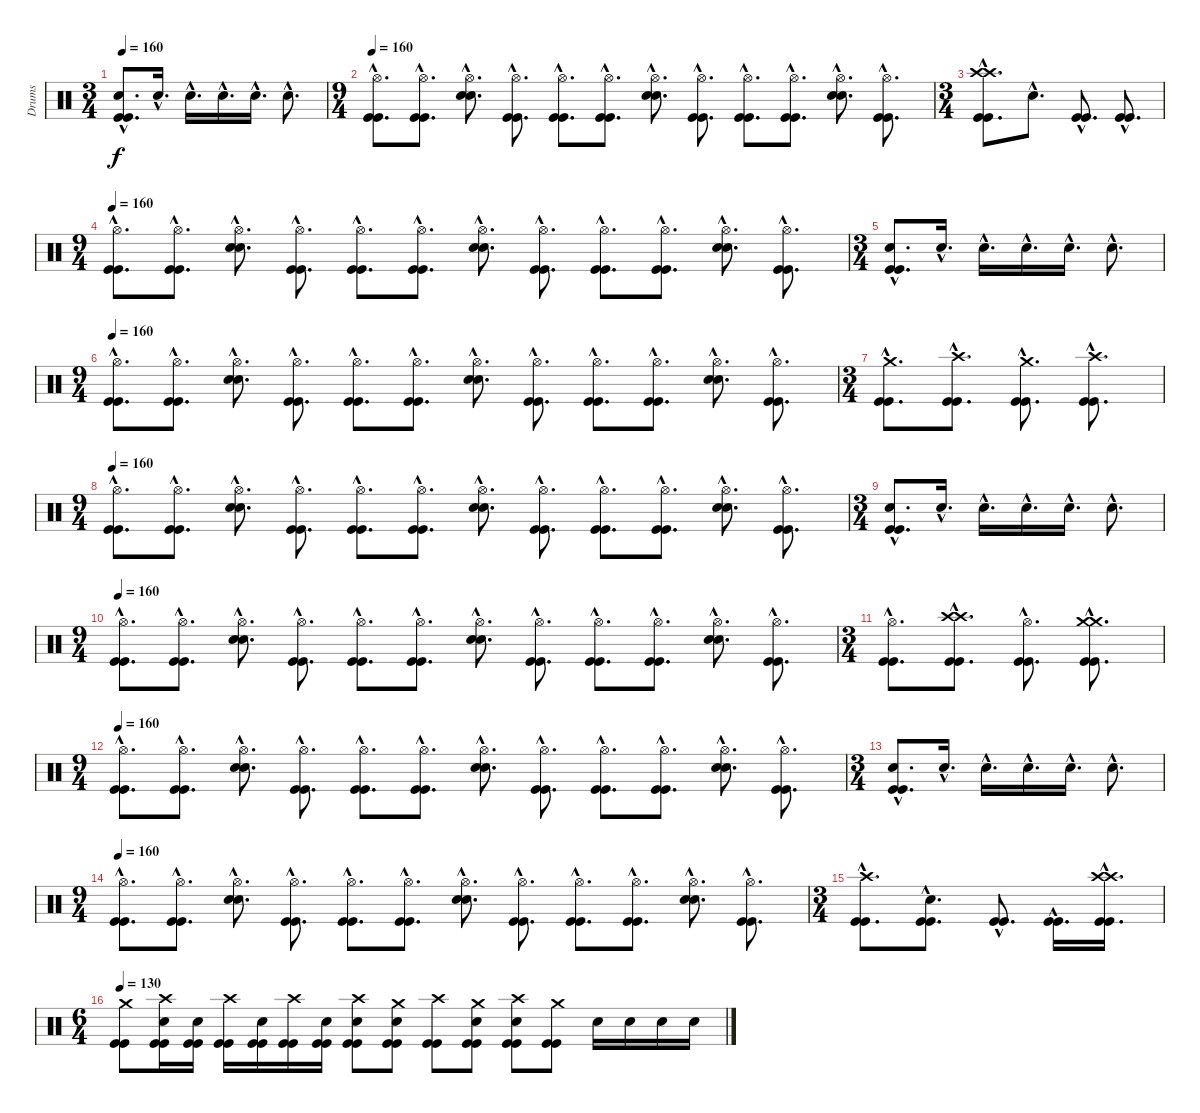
\track ("Drums" "Drums") {instrument percussion}
\staff {score}
\articulation defaults
\ts (3 4)
\tempo 160
\clef neutral
\ks c
("Electric Snare (hit)"{hac} "Kick (hit)"{hac} "Kick (hit)"{hac}).8{d dy f} "Electric Snare (hit)"{hac}.16{d} "Electric Snare (hit)"{hac}.16{d} "Electric Snare (hit)"{hac}.16{d} "Electric Snare (hit)"{hac}.16{d} "Electric Snare (hit)"{hac}.8{d} |
\ts (9 4)
\tempo 160
("Hi-Hat (open)"{hac} "Kick (hit)"{hac} "Kick (hit)"{hac}).8{d} ("Hi-Hat (open)"{hac} "Kick (hit)"{hac} "Kick (hit)"{hac}).8{d} ("Hi-Hat (open)"{hac} "Electric Snare (hit)"{hac} "Electric Snare (hit)"{hac}).8{d} ("Hi-Hat (open)"{hac} "Kick (hit)"{hac} "Kick (hit)"{hac}).8{d} ("Hi-Hat (open)"{hac} "Kick (hit)"{hac} "Kick (hit)"{hac}).8{d} ("Hi-Hat (open)"{hac} "Kick (hit)"{hac} "Kick (hit)"{hac}).8{d} ("Hi-Hat (open)"{hac} "Electric Snare (hit)"{hac} "Electric Snare (hit)"{hac}).8{d} ("Hi-Hat (open)"{hac} "Kick (hit)"{hac} "Kick (hit)"{hac}).8{d} ("Hi-Hat (open)"{hac} "Kick (hit)"{hac} "Kick (hit)"{hac}).8{d} ("Hi-Hat (open)"{hac} "Kick (hit)"{hac} "Kick (hit)"{hac}).8{d} ("Hi-Hat (open)"{hac} "Electric Snare (hit)"{hac} "Electric Snare (hit)"{hac}).8{d} ("Hi-Hat (open)"{hac} "Kick (hit)"{hac} "Kick (hit)"{hac}).8{d} |
\ts (3 4)
("Crash high (hit)"{hac} "Crash high (hit)"{hac} "Kick (hit)"{hac} "Kick (hit)"{hac}).8{d} "Electric Snare (hit)"{hac}.8{d} ("Kick (hit)"{hac} "Kick (hit)"{hac}).8{d} ("Kick (hit)"{hac} "Kick (hit)"{hac}).8{d} |
\ts (9 4)
\tempo 160
("Hi-Hat (open)"{hac} "Kick (hit)"{hac} "Kick (hit)"{hac}).8{d} ("Hi-Hat (open)"{hac} "Kick (hit)"{hac} "Kick (hit)"{hac}).8{d} ("Hi-Hat (open)"{hac} "Electric Snare (hit)"{hac} "Electric Snare (hit)"{hac}).8{d} ("Hi-Hat (open)"{hac} "Kick (hit)"{hac} "Kick (hit)"{hac}).8{d} ("Hi-Hat (open)"{hac} "Kick (hit)"{hac} "Kick (hit)"{hac}).8{d} ("Hi-Hat (open)"{hac} "Kick (hit)"{hac} "Kick (hit)"{hac}).8{d} ("Hi-Hat (open)"{hac} "Electric Snare (hit)"{hac} "Electric Snare (hit)"{hac}).8{d} ("Hi-Hat (open)"{hac} "Kick (hit)"{hac} "Kick (hit)"{hac}).8{d} ("Hi-Hat (open)"{hac} "Kick (hit)"{hac} "Kick (hit)"{hac}).8{d} ("Hi-Hat (open)"{hac} "Kick (hit)"{hac} "Kick (hit)"{hac}).8{d} ("Hi-Hat (open)"{hac} "Electric Snare (hit)"{hac} "Electric Snare (hit)"{hac}).8{d} ("Hi-Hat (open)"{hac} "Kick (hit)"{hac} "Kick (hit)"{hac}).8{d} |
\ts (3 4)
("Electric Snare (hit)"{hac} "Kick (hit)"{hac} "Kick (hit)"{hac}).8{d} "Electric Snare (hit)"{hac}.16{d} "Electric Snare (hit)"{hac}.16{d} "Electric Snare (hit)"{hac}.16{d} "Electric Snare (hit)"{hac}.16{d} "Electric Snare (hit)"{hac}.8{d} |
\ts (9 4)
\tempo 160
("Hi-Hat (open)"{hac} "Kick (hit)"{hac} "Kick (hit)"{hac}).8{d} ("Hi-Hat (open)"{hac} "Kick (hit)"{hac} "Kick (hit)"{hac}).8{d} ("Hi-Hat (open)"{hac} "Electric Snare (hit)"{hac} "Electric Snare (hit)"{hac}).8{d} ("Hi-Hat (open)"{hac} "Kick (hit)"{hac} "Kick (hit)"{hac}).8{d} ("Hi-Hat (open)"{hac} "Kick (hit)"{hac} "Kick (hit)"{hac}).8{d} ("Hi-Hat (open)"{hac} "Kick (hit)"{hac} "Kick (hit)"{hac}).8{d} ("Hi-Hat (open)"{hac} "Electric Snare (hit)"{hac} "Electric Snare (hit)"{hac}).8{d} ("Hi-Hat (open)"{hac} "Kick (hit)"{hac} "Kick (hit)"{hac}).8{d} ("Hi-Hat (open)"{hac} "Kick (hit)"{hac} "Kick (hit)"{hac}).8{d} ("Hi-Hat (open)"{hac} "Kick (hit)"{hac} "Kick (hit)"{hac}).8{d} ("Hi-Hat (open)"{hac} "Electric Snare (hit)"{hac} "Electric Snare (hit)"{hac}).8{d} ("Hi-Hat (open)"{hac} "Kick (hit)"{hac} "Kick (hit)"{hac}).8{d} |
\ts (3 4)
("Crash medium (hit)"{hac} "Kick (hit)"{hac} "Kick (hit)"{hac}).8{d} ("Crash high (hit)"{hac} "Kick (hit)"{hac} "Kick (hit)"{hac}).8{d} ("Crash medium (hit)"{hac} "Kick (hit)"{hac} "Kick (hit)"{hac}).8{d} ("Crash high (hit)"{hac} "Kick (hit)"{hac} "Kick (hit)"{hac}).8{d} |
\ts (9 4)
\tempo 160
("Hi-Hat (open)"{hac} "Kick (hit)"{hac} "Kick (hit)"{hac}).8{d} ("Hi-Hat (open)"{hac} "Kick (hit)"{hac} "Kick (hit)"{hac}).8{d} ("Hi-Hat (open)"{hac} "Electric Snare (hit)"{hac} "Electric Snare (hit)"{hac}).8{d} ("Hi-Hat (open)"{hac} "Kick (hit)"{hac} "Kick (hit)"{hac}).8{d} ("Hi-Hat (open)"{hac} "Kick (hit)"{hac} "Kick (hit)"{hac}).8{d} ("Hi-Hat (open)"{hac} "Kick (hit)"{hac} "Kick (hit)"{hac}).8{d} ("Hi-Hat (open)"{hac} "Electric Snare (hit)"{hac} "Electric Snare (hit)"{hac}).8{d} ("Hi-Hat (open)"{hac} "Kick (hit)"{hac} "Kick (hit)"{hac}).8{d} ("Hi-Hat (open)"{hac} "Kick (hit)"{hac} "Kick (hit)"{hac}).8{d} ("Hi-Hat (open)"{hac} "Kick (hit)"{hac} "Kick (hit)"{hac}).8{d} ("Hi-Hat (open)"{hac} "Electric Snare (hit)"{hac} "Electric Snare (hit)"{hac}).8{d} ("Hi-Hat (open)"{hac} "Kick (hit)"{hac} "Kick (hit)"{hac}).8{d} |
\ts (3 4)
("Electric Snare (hit)"{hac} "Kick (hit)"{hac} "Kick (hit)"{hac}).8{d} "Electric Snare (hit)"{hac}.16{d} "Electric Snare (hit)"{hac}.16{d} "Electric Snare (hit)"{hac}.16{d} "Electric Snare (hit)"{hac}.16{d} "Electric Snare (hit)"{hac}.8{d} |
\ts (9 4)
\tempo 160
("Hi-Hat (open)"{hac} "Kick (hit)"{hac} "Kick (hit)"{hac}).8{d} ("Hi-Hat (open)"{hac} "Kick (hit)"{hac} "Kick (hit)"{hac}).8{d} ("Hi-Hat (open)"{hac} "Electric Snare (hit)"{hac} "Electric Snare (hit)"{hac}).8{d} ("Hi-Hat (open)"{hac} "Kick (hit)"{hac} "Kick (hit)"{hac}).8{d} ("Hi-Hat (open)"{hac} "Kick (hit)"{hac} "Kick (hit)"{hac}).8{d} ("Hi-Hat (open)"{hac} "Kick (hit)"{hac} "Kick (hit)"{hac}).8{d} ("Hi-Hat (open)"{hac} "Electric Snare (hit)"{hac} "Electric Snare (hit)"{hac}).8{d} ("Hi-Hat (open)"{hac} "Kick (hit)"{hac} "Kick (hit)"{hac}).8{d} ("Hi-Hat (open)"{hac} "Kick (hit)"{hac} "Kick (hit)"{hac}).8{d} ("Hi-Hat (open)"{hac} "Kick (hit)"{hac} "Kick (hit)"{hac}).8{d} ("Hi-Hat (open)"{hac} "Electric Snare (hit)"{hac} "Electric Snare (hit)"{hac}).8{d} ("Hi-Hat (open)"{hac} "Kick (hit)"{hac} "Kick (hit)"{hac}).8{d} |
\ts (3 4)
("Hi-Hat (open)"{hac} "Kick (hit)"{hac} "Kick (hit)"{hac}).8{d} ("Crash high (hit)"{hac} "Crash high (hit)"{hac} "Kick (hit)"{hac} "Kick (hit)"{hac}).8{d} ("Hi-Hat (open)"{hac} "Kick (hit)"{hac} "Kick (hit)"{hac}).8{d} ("Crash medium (hit)"{hac} "Crash medium (hit)"{hac} "Kick (hit)"{hac} "Kick (hit)"{hac}).8{d} |
\ts (9 4)
\tempo 160
("Hi-Hat (open)"{hac} "Kick (hit)"{hac} "Kick (hit)"{hac}).8{d} ("Hi-Hat (open)"{hac} "Kick (hit)"{hac} "Kick (hit)"{hac}).8{d} ("Hi-Hat (open)"{hac} "Electric Snare (hit)"{hac} "Electric Snare (hit)"{hac}).8{d} ("Hi-Hat (open)"{hac} "Kick (hit)"{hac} "Kick (hit)"{hac}).8{d} ("Hi-Hat (open)"{hac} "Kick (hit)"{hac} "Kick (hit)"{hac}).8{d} ("Hi-Hat (open)"{hac} "Kick (hit)"{hac} "Kick (hit)"{hac}).8{d} ("Hi-Hat (open)"{hac} "Electric Snare (hit)"{hac} "Electric Snare (hit)"{hac}).8{d} ("Hi-Hat (open)"{hac} "Kick (hit)"{hac} "Kick (hit)"{hac}).8{d} ("Hi-Hat (open)"{hac} "Kick (hit)"{hac} "Kick (hit)"{hac}).8{d} ("Hi-Hat (open)"{hac} "Kick (hit)"{hac} "Kick (hit)"{hac}).8{d} ("Hi-Hat (open)"{hac} "Electric Snare (hit)"{hac} "Electric Snare (hit)"{hac}).8{d} ("Hi-Hat (open)"{hac} "Kick (hit)"{hac} "Kick (hit)"{hac}).8{d} |
\ts (3 4)
("Electric Snare (hit)"{hac} "Kick (hit)"{hac} "Kick (hit)"{hac}).8{d} "Electric Snare (hit)"{hac}.16{d} "Electric Snare (hit)"{hac}.16{d} "Electric Snare (hit)"{hac}.16{d} "Electric Snare (hit)"{hac}.16{d} "Electric Snare (hit)"{hac}.8{d} |
\ts (9 4)
\tempo 160
("Hi-Hat (open)"{hac} "Kick (hit)"{hac} "Kick (hit)"{hac}).8{d} ("Hi-Hat (open)"{hac} "Kick (hit)"{hac} "Kick (hit)"{hac}).8{d} ("Hi-Hat (open)"{hac} "Electric Snare (hit)"{hac} "Electric Snare (hit)"{hac}).8{d} ("Hi-Hat (open)"{hac} "Kick (hit)"{hac} "Kick (hit)"{hac}).8{d} ("Hi-Hat (open)"{hac} "Kick (hit)"{hac} "Kick (hit)"{hac}).8{d} ("Hi-Hat (open)"{hac} "Kick (hit)"{hac} "Kick (hit)"{hac}).8{d} ("Hi-Hat (open)"{hac} "Electric Snare (hit)"{hac} "Electric Snare (hit)"{hac}).8{d} ("Hi-Hat (open)"{hac} "Kick (hit)"{hac} "Kick (hit)"{hac}).8{d} ("Hi-Hat (open)"{hac} "Kick (hit)"{hac} "Kick (hit)"{hac}).8{d} ("Hi-Hat (open)"{hac} "Kick (hit)"{hac} "Kick (hit)"{hac}).8{d} ("Hi-Hat (open)"{hac} "Electric Snare (hit)"{hac} "Electric Snare (hit)"{hac}).8{d} ("Hi-Hat (open)"{hac} "Kick (hit)"{hac} "Kick (hit)"{hac}).8{d} |
\ts (3 4)
("Crash high (hit)"{hac} "Kick (hit)"{hac} "Kick (hit)"{hac}).8{d} ("Electric Snare (hit)"{hac} "Kick (hit)"{hac} "Kick (hit)"{hac}).8{d} ("Kick (hit)"{hac} "Kick (hit)"{hac}).8{d} ("Kick (hit)"{hac} "Kick (hit)"{hac}).16{d} ("Crash high (hit)"{hac} "Crash high (hit)"{hac} "Kick (hit)"{hac} "Kick (hit)"{hac}).16{d} |
\ts (6 4)
\tempo 130
("Crash medium (hit)" "Kick (hit)" "Kick (hit)").8 ("Crash high (hit)" "Electric Snare (hit)" "Kick (hit)" "Kick (hit)").16 ("Electric Snare (hit)" "Kick (hit)" "Kick (hit)").16 ("Crash high (hit)" "Kick (hit)" "Kick (hit)").16 ("Electric Snare (hit)" "Kick (hit)" "Kick (hit)").16 ("Crash high (hit)" "Kick (hit)" "Kick (hit)").16 ("Electric Snare (hit)" "Kick (hit)" "Kick (hit)").16 ("Crash high (hit)" "Electric Snare (hit)" "Kick (hit)" "Kick (hit)").8 ("Crash medium (hit)" "Electric Snare (hit)" "Kick (hit)" "Kick (hit)").8 ("Crash high (hit)" "Kick (hit)" "Kick (hit)").8 ("Crash medium (hit)" "Electric Snare (hit)" "Kick (hit)" "Kick (hit)").8 ("Crash high (hit)" "Electric Snare (hit)" "Kick (hit)" "Kick (hit)").8 ("Crash medium (hit)" "Kick (hit)" "Kick (hit)").8 "Electric Snare (hit)".16 "Electric Snare (hit)".16 "Electric Snare (hit)".16 "Electric Snare (hit)".16
